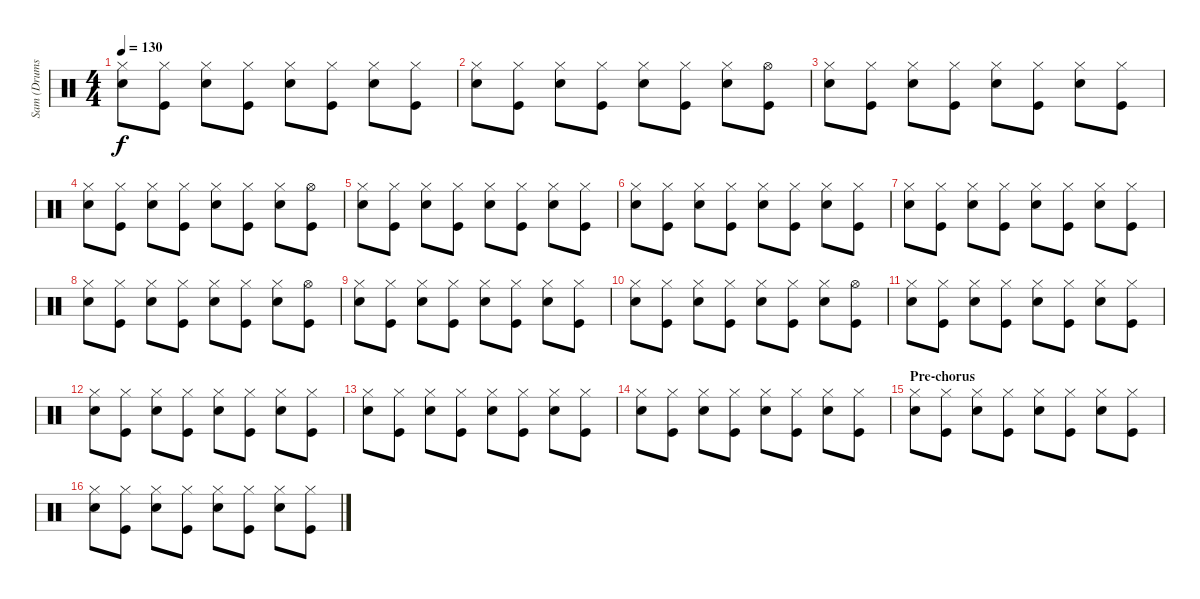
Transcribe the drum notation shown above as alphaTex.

\track ("Sam (Drums)" "Sam (Drums") {instrument percussion}
\staff {score}
\articulation defaults
\ts (4 4)
\tempo 130
\clef neutral
\ks c
("Hi-Hat (closed)" "Snare (hit) 2").8{dy f} ("Hi-Hat (closed)" "Kick (hit)").8 ("Hi-Hat (closed)" "Snare (hit) 2").8 ("Hi-Hat (closed)" "Kick (hit)").8 ("Hi-Hat (closed)" "Snare (hit) 2").8 ("Hi-Hat (closed)" "Kick (hit)").8 ("Hi-Hat (closed)" "Snare (hit) 2").8 ("Hi-Hat (closed)" "Kick (hit)").8 |
("Hi-Hat (closed)" "Snare (hit) 2").8 ("Hi-Hat (closed)" "Kick (hit)").8 ("Hi-Hat (closed)" "Snare (hit) 2").8 ("Hi-Hat (closed)" "Kick (hit)").8 ("Hi-Hat (closed)" "Snare (hit) 2").8 ("Hi-Hat (closed)" "Kick (hit)").8 ("Hi-Hat (closed)" "Snare (hit) 2").8 ("Hi-Hat (open)" "Kick (hit)").8 |
("Hi-Hat (closed)" "Snare (hit) 2").8 ("Hi-Hat (closed)" "Kick (hit)").8 ("Hi-Hat (closed)" "Snare (hit) 2").8 ("Hi-Hat (closed)" "Kick (hit)").8 ("Hi-Hat (closed)" "Snare (hit) 2").8 ("Hi-Hat (closed)" "Kick (hit)").8 ("Hi-Hat (closed)" "Snare (hit) 2").8 ("Hi-Hat (closed)" "Kick (hit)").8 |
("Hi-Hat (closed)" "Snare (hit) 2").8 ("Hi-Hat (closed)" "Kick (hit)").8 ("Hi-Hat (closed)" "Snare (hit) 2").8 ("Hi-Hat (closed)" "Kick (hit)").8 ("Hi-Hat (closed)" "Snare (hit) 2").8 ("Hi-Hat (closed)" "Kick (hit)").8 ("Hi-Hat (closed)" "Snare (hit) 2").8 ("Hi-Hat (open)" "Kick (hit)").8 |
("Hi-Hat (closed)" "Snare (hit) 2").8 ("Hi-Hat (closed)" "Kick (hit)").8 ("Hi-Hat (closed)" "Snare (hit) 2").8 ("Hi-Hat (closed)" "Kick (hit)").8 ("Hi-Hat (closed)" "Snare (hit) 2").8 ("Hi-Hat (closed)" "Kick (hit)").8 ("Hi-Hat (closed)" "Snare (hit) 2").8 ("Hi-Hat (closed)" "Kick (hit)").8 |
("Hi-Hat (closed)" "Snare (hit) 2").8 ("Hi-Hat (closed)" "Kick (hit)").8 ("Hi-Hat (closed)" "Snare (hit) 2").8 ("Hi-Hat (closed)" "Kick (hit)").8 ("Hi-Hat (closed)" "Snare (hit) 2").8 ("Hi-Hat (closed)" "Kick (hit)").8 ("Hi-Hat (closed)" "Snare (hit) 2").8 ("Hi-Hat (closed)" "Kick (hit)").8 |
("Hi-Hat (closed)" "Snare (hit) 2").8 ("Hi-Hat (closed)" "Kick (hit)").8 ("Hi-Hat (closed)" "Snare (hit) 2").8 ("Hi-Hat (closed)" "Kick (hit)").8 ("Hi-Hat (closed)" "Snare (hit) 2").8 ("Hi-Hat (closed)" "Kick (hit)").8 ("Hi-Hat (closed)" "Snare (hit) 2").8 ("Hi-Hat (closed)" "Kick (hit)").8 |
("Hi-Hat (closed)" "Snare (hit) 2").8 ("Hi-Hat (closed)" "Kick (hit)").8 ("Hi-Hat (closed)" "Snare (hit) 2").8 ("Hi-Hat (closed)" "Kick (hit)").8 ("Hi-Hat (closed)" "Snare (hit) 2").8 ("Hi-Hat (closed)" "Kick (hit)").8 ("Hi-Hat (closed)" "Snare (hit) 2").8 ("Hi-Hat (open)" "Kick (hit)").8 |
("Hi-Hat (closed)" "Snare (hit) 2").8 ("Hi-Hat (closed)" "Kick (hit)").8 ("Hi-Hat (closed)" "Snare (hit) 2").8 ("Hi-Hat (closed)" "Kick (hit)").8 ("Hi-Hat (closed)" "Snare (hit) 2").8 ("Hi-Hat (closed)" "Kick (hit)").8 ("Hi-Hat (closed)" "Snare (hit) 2").8 ("Hi-Hat (closed)" "Kick (hit)").8 |
("Hi-Hat (closed)" "Snare (hit) 2").8 ("Hi-Hat (closed)" "Kick (hit)").8 ("Hi-Hat (closed)" "Snare (hit) 2").8 ("Hi-Hat (closed)" "Kick (hit)").8 ("Hi-Hat (closed)" "Snare (hit) 2").8 ("Hi-Hat (closed)" "Kick (hit)").8 ("Hi-Hat (closed)" "Snare (hit) 2").8 ("Hi-Hat (open)" "Kick (hit)").8 |
("Hi-Hat (closed)" "Snare (hit) 2").8 ("Hi-Hat (closed)" "Kick (hit)").8 ("Hi-Hat (closed)" "Snare (hit) 2").8 ("Hi-Hat (closed)" "Kick (hit)").8 ("Hi-Hat (closed)" "Snare (hit) 2").8 ("Hi-Hat (closed)" "Kick (hit)").8 ("Hi-Hat (closed)" "Snare (hit) 2").8 ("Hi-Hat (closed)" "Kick (hit)").8 |
("Hi-Hat (closed)" "Snare (hit) 2").8 ("Hi-Hat (closed)" "Kick (hit)").8 ("Hi-Hat (closed)" "Snare (hit) 2").8 ("Hi-Hat (closed)" "Kick (hit)").8 ("Hi-Hat (closed)" "Snare (hit) 2").8 ("Hi-Hat (closed)" "Kick (hit)").8 ("Hi-Hat (closed)" "Snare (hit) 2").8 ("Hi-Hat (closed)" "Kick (hit)").8 |
("Hi-Hat (closed)" "Snare (hit) 2").8 ("Hi-Hat (closed)" "Kick (hit)").8 ("Hi-Hat (closed)" "Snare (hit) 2").8 ("Hi-Hat (closed)" "Kick (hit)").8 ("Hi-Hat (closed)" "Snare (hit) 2").8 ("Hi-Hat (closed)" "Kick (hit)").8 ("Hi-Hat (closed)" "Snare (hit) 2").8 ("Hi-Hat (closed)" "Kick (hit)").8 |
("Hi-Hat (closed)" "Snare (hit) 2").8 ("Hi-Hat (closed)" "Kick (hit)").8 ("Hi-Hat (closed)" "Snare (hit) 2").8 ("Hi-Hat (closed)" "Kick (hit)").8 ("Hi-Hat (closed)" "Snare (hit) 2").8 ("Hi-Hat (closed)" "Kick (hit)").8 ("Hi-Hat (closed)" "Snare (hit) 2").8 ("Hi-Hat (closed)" "Kick (hit)").8 |
\section ("" "Pre-chorus")
("Hi-Hat (closed)" "Snare (hit) 2").8 ("Hi-Hat (closed)" "Kick (hit)").8 ("Hi-Hat (closed)" "Snare (hit) 2").8 ("Hi-Hat (closed)" "Kick (hit)").8 ("Hi-Hat (closed)" "Snare (hit) 2").8 ("Hi-Hat (closed)" "Kick (hit)").8 ("Hi-Hat (closed)" "Snare (hit) 2").8 ("Hi-Hat (closed)" "Kick (hit)").8 |
("Hi-Hat (closed)" "Snare (hit) 2").8 ("Hi-Hat (closed)" "Kick (hit)").8 ("Hi-Hat (closed)" "Snare (hit) 2").8 ("Hi-Hat (closed)" "Kick (hit)").8 ("Hi-Hat (closed)" "Snare (hit) 2").8 ("Hi-Hat (closed)" "Kick (hit)").8 ("Hi-Hat (closed)" "Snare (hit) 2").8 ("Hi-Hat (closed)" "Kick (hit)").8
